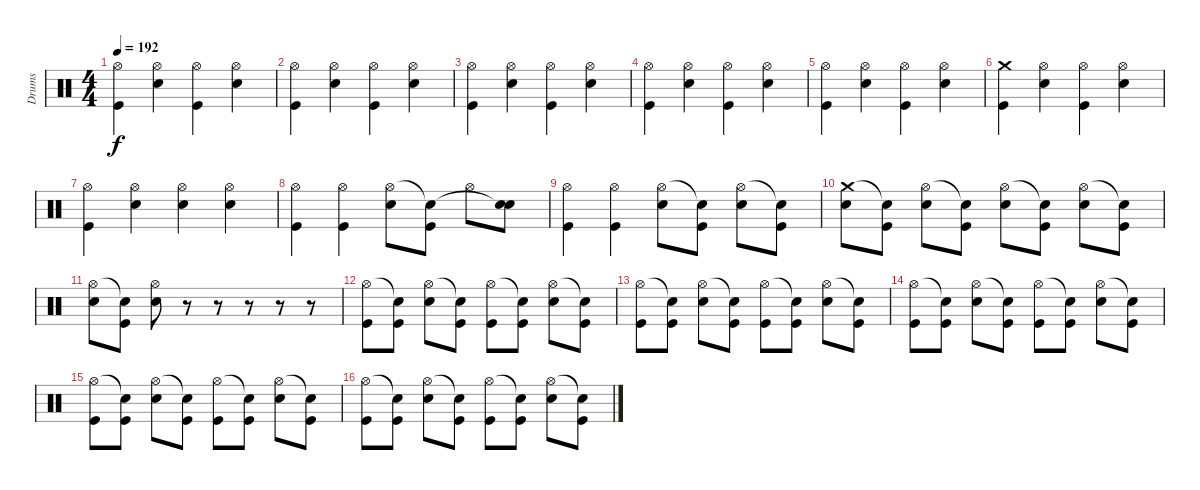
\track ("Drums" "Drums") {instrument percussion}
\staff {score}
\articulation defaults
\ts (4 4)
\tempo 192
\clef neutral
\ks c
("Kick (hit)" "Hi-Hat (open)").4{dy f} ("Snare (hit) 2" "Hi-Hat (open)").4 ("Kick (hit)" "Hi-Hat (open)").4 ("Snare (hit) 2" "Hi-Hat (open)").4 |
("Kick (hit)" "Hi-Hat (open)").4 ("Snare (hit) 2" "Hi-Hat (open)").4 ("Kick (hit)" "Hi-Hat (open)").4 ("Snare (hit) 2" "Hi-Hat (open)").4 |
("Kick (hit)" "Hi-Hat (open)").4 ("Snare (hit) 2" "Hi-Hat (open)").4 ("Kick (hit)" "Hi-Hat (open)").4 ("Snare (hit) 2" "Hi-Hat (open)").4 |
("Kick (hit)" "Hi-Hat (open)").4 ("Snare (hit) 2" "Hi-Hat (open)").4 ("Kick (hit)" "Hi-Hat (open)").4 ("Snare (hit) 2" "Hi-Hat (open)").4 |
("Kick (hit)" "Hi-Hat (open)").4 ("Snare (hit) 2" "Hi-Hat (open)").4 ("Kick (hit)" "Hi-Hat (open)").4 ("Snare (hit) 2" "Hi-Hat (open)").4 |
("Kick (hit)" "Crash medium (hit)").4 ("Snare (hit) 2" "Hi-Hat (open)").4 ("Kick (hit)" "Hi-Hat (open)").4 ("Snare (hit) 2" "Hi-Hat (open)").4 |
("Kick (hit)" "Hi-Hat (open)").4 ("Snare (hit) 2" "Hi-Hat (open)").4 ("Snare (hit) 2" "Hi-Hat (open)").4 ("Snare (hit) 2" "Hi-Hat (open)").4 |
("Kick (hit)" "Hi-Hat (open)").4 ("Kick (hit)" "Hi-Hat (open)").4 ("Snare (hit) 2" "Hi-Hat (open)").8 ("Kick (hit)" "Snare (hit)"{t}).8 "Hi-Hat (open)".8 ("Snare (hit) 2" "Snare (hit)"{t}).8 |
("Kick (hit)" "Hi-Hat (open)").4 ("Kick (hit)" "Hi-Hat (open)").4 ("Snare (hit) 2" "Hi-Hat (open)").8 ("Kick (hit)" "Snare (hit)"{t}).8 ("Snare (hit) 2" "Hi-Hat (open)").8 ("Kick (hit)" "Snare (hit)"{t}).8 |
("Crash medium (hit)" "Snare (hit) 2").8 ("Snare (hit)"{t} "Kick (hit)").8 ("Hi-Hat (open)" "Snare (hit) 2").8 ("Snare (hit)"{t} "Kick (hit)").8 ("Hi-Hat (open)" "Snare (hit) 2").8 ("Snare (hit)"{t} "Kick (hit)").8 ("Hi-Hat (open)" "Snare (hit) 2").8 ("Snare (hit)"{t} "Kick (hit)").8 |
("Hi-Hat (open)" "Snare (hit) 2").8 ("Snare (hit)"{t} "Kick (hit)").8 ("Hi-Hat (open)" "Snare (hit) 2").8 r.8 r.8 r.8 r.8 r.8 |
("Kick (hit)" "Hi-Hat (open)").8 ("Kick (hit)" "Snare (hit)"{t}).8 ("Snare (hit) 2" "Hi-Hat (open)").8 ("Kick (hit)" "Snare (hit)"{t}).8 ("Kick (hit)" "Hi-Hat (open)").8 ("Kick (hit)" "Snare (hit)"{t}).8 ("Snare (hit) 2" "Hi-Hat (open)").8 ("Kick (hit)" "Snare (hit)"{t}).8 |
("Kick (hit)" "Hi-Hat (open)").8 ("Kick (hit)" "Snare (hit)"{t}).8 ("Snare (hit) 2" "Hi-Hat (open)").8 ("Kick (hit)" "Snare (hit)"{t}).8 ("Kick (hit)" "Hi-Hat (open)").8 ("Kick (hit)" "Snare (hit)"{t}).8 ("Snare (hit) 2" "Hi-Hat (open)").8 ("Kick (hit)" "Snare (hit)"{t}).8 |
("Kick (hit)" "Hi-Hat (open)").8 ("Kick (hit)" "Snare (hit)"{t}).8 ("Snare (hit) 2" "Hi-Hat (open)").8 ("Kick (hit)" "Snare (hit)"{t}).8 ("Kick (hit)" "Hi-Hat (open)").8 ("Kick (hit)" "Snare (hit)"{t}).8 ("Snare (hit) 2" "Hi-Hat (open)").8 ("Kick (hit)" "Snare (hit)"{t}).8 |
("Kick (hit)" "Hi-Hat (open)").8 ("Kick (hit)" "Snare (hit)"{t}).8 ("Snare (hit) 2" "Hi-Hat (open)").8 ("Kick (hit)" "Snare (hit)"{t}).8 ("Kick (hit)" "Hi-Hat (open)").8 ("Kick (hit)" "Snare (hit)"{t}).8 ("Snare (hit) 2" "Hi-Hat (open)").8 ("Kick (hit)" "Snare (hit)"{t}).8 |
("Kick (hit)" "Hi-Hat (open)").8 ("Kick (hit)" "Snare (hit)"{t}).8 ("Snare (hit) 2" "Hi-Hat (open)").8 ("Kick (hit)" "Snare (hit)"{t}).8 ("Kick (hit)" "Hi-Hat (open)").8 ("Kick (hit)" "Snare (hit)"{t}).8 ("Snare (hit) 2" "Hi-Hat (open)").8 ("Kick (hit)" "Snare (hit)"{t}).8
